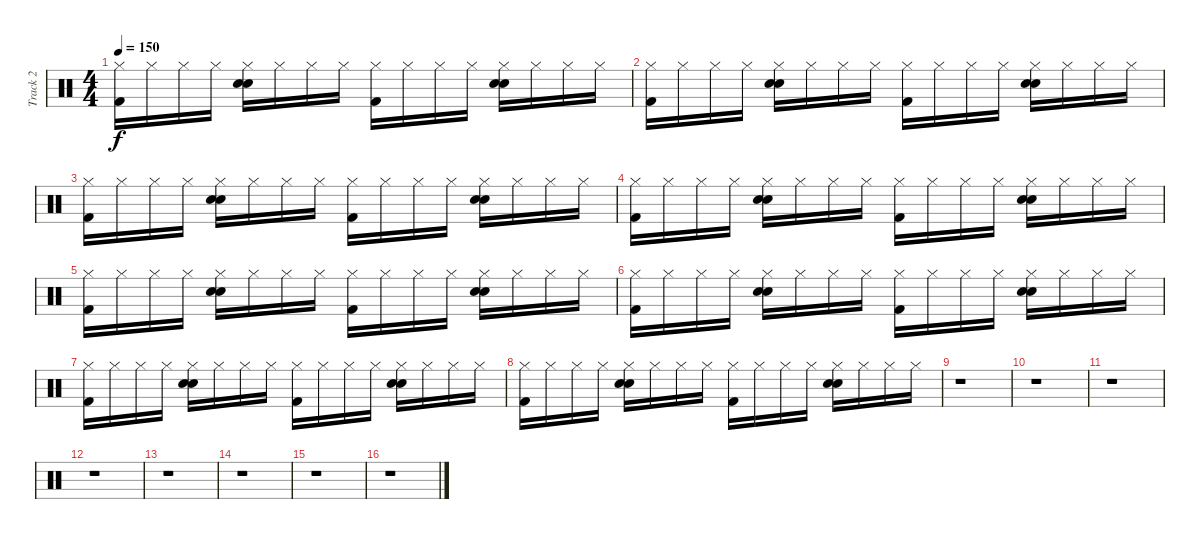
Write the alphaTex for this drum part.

\track ("Track 2" "Track 2") {instrument percussion}
\staff {score}
\articulation defaults
\ts (4 4)
\tempo 150
\clef neutral
\ks c
("Hi-Hat (closed)" "Kick (hit) 2").16{dy f} "Hi-Hat (closed)".16 "Hi-Hat (closed)".16 "Hi-Hat (closed)".16 ("Hi-Hat (closed)" "Hand Clap (hit)" "Electric Snare (hit)").16 "Hi-Hat (closed)".16 "Hi-Hat (closed)".16 "Hi-Hat (closed)".16 ("Hi-Hat (closed)" "Kick (hit) 2").16 "Hi-Hat (closed)".16 "Hi-Hat (closed)".16 "Hi-Hat (closed)".16 ("Hi-Hat (closed)" "Electric Snare (hit)" "Hand Clap (hit)").16 "Hi-Hat (closed)".16 "Hi-Hat (closed)".16 "Hi-Hat (closed)".16 |
("Hi-Hat (closed)" "Kick (hit) 2").16 "Hi-Hat (closed)".16 "Hi-Hat (closed)".16 "Hi-Hat (closed)".16 ("Hi-Hat (closed)" "Hand Clap (hit)" "Electric Snare (hit)").16 "Hi-Hat (closed)".16 "Hi-Hat (closed)".16 "Hi-Hat (closed)".16 ("Hi-Hat (closed)" "Kick (hit) 2").16 "Hi-Hat (closed)".16 "Hi-Hat (closed)".16 "Hi-Hat (closed)".16 ("Hi-Hat (closed)" "Electric Snare (hit)" "Hand Clap (hit)").16 "Hi-Hat (closed)".16 "Hi-Hat (closed)".16 "Hi-Hat (closed)".16 |
("Hi-Hat (closed)" "Kick (hit) 2").16 "Hi-Hat (closed)".16 "Hi-Hat (closed)".16 "Hi-Hat (closed)".16 ("Hi-Hat (closed)" "Hand Clap (hit)" "Electric Snare (hit)").16 "Hi-Hat (closed)".16 "Hi-Hat (closed)".16 "Hi-Hat (closed)".16 ("Hi-Hat (closed)" "Kick (hit) 2").16 "Hi-Hat (closed)".16 "Hi-Hat (closed)".16 "Hi-Hat (closed)".16 ("Hi-Hat (closed)" "Electric Snare (hit)" "Hand Clap (hit)").16 "Hi-Hat (closed)".16 "Hi-Hat (closed)".16 "Hi-Hat (closed)".16 |
("Hi-Hat (closed)" "Kick (hit) 2").16 "Hi-Hat (closed)".16 "Hi-Hat (closed)".16 "Hi-Hat (closed)".16 ("Hi-Hat (closed)" "Hand Clap (hit)" "Electric Snare (hit)").16 "Hi-Hat (closed)".16 "Hi-Hat (closed)".16 "Hi-Hat (closed)".16 ("Hi-Hat (closed)" "Kick (hit) 2").16 "Hi-Hat (closed)".16 "Hi-Hat (closed)".16 "Hi-Hat (closed)".16 ("Hi-Hat (closed)" "Electric Snare (hit)" "Hand Clap (hit)").16 "Hi-Hat (closed)".16 "Hi-Hat (closed)".16 "Hi-Hat (closed)".16 |
("Hi-Hat (closed)" "Kick (hit) 2").16 "Hi-Hat (closed)".16 "Hi-Hat (closed)".16 "Hi-Hat (closed)".16 ("Hi-Hat (closed)" "Hand Clap (hit)" "Electric Snare (hit)").16 "Hi-Hat (closed)".16 "Hi-Hat (closed)".16 "Hi-Hat (closed)".16 ("Hi-Hat (closed)" "Kick (hit) 2").16 "Hi-Hat (closed)".16 "Hi-Hat (closed)".16 "Hi-Hat (closed)".16 ("Hi-Hat (closed)" "Electric Snare (hit)" "Hand Clap (hit)").16 "Hi-Hat (closed)".16 "Hi-Hat (closed)".16 "Hi-Hat (closed)".16 |
("Hi-Hat (closed)" "Kick (hit) 2").16 "Hi-Hat (closed)".16 "Hi-Hat (closed)".16 "Hi-Hat (closed)".16 ("Hi-Hat (closed)" "Hand Clap (hit)" "Electric Snare (hit)").16 "Hi-Hat (closed)".16 "Hi-Hat (closed)".16 "Hi-Hat (closed)".16 ("Hi-Hat (closed)" "Kick (hit) 2").16 "Hi-Hat (closed)".16 "Hi-Hat (closed)".16 "Hi-Hat (closed)".16 ("Hi-Hat (closed)" "Electric Snare (hit)" "Hand Clap (hit)").16 "Hi-Hat (closed)".16 "Hi-Hat (closed)".16 "Hi-Hat (closed)".16 |
("Hi-Hat (closed)" "Kick (hit) 2").16 "Hi-Hat (closed)".16 "Hi-Hat (closed)".16 "Hi-Hat (closed)".16 ("Hi-Hat (closed)" "Hand Clap (hit)" "Electric Snare (hit)").16 "Hi-Hat (closed)".16 "Hi-Hat (closed)".16 "Hi-Hat (closed)".16 ("Hi-Hat (closed)" "Kick (hit) 2").16 "Hi-Hat (closed)".16 "Hi-Hat (closed)".16 "Hi-Hat (closed)".16 ("Hi-Hat (closed)" "Electric Snare (hit)" "Hand Clap (hit)").16 "Hi-Hat (closed)".16 "Hi-Hat (closed)".16 "Hi-Hat (closed)".16 |
("Hi-Hat (closed)" "Kick (hit) 2").16 "Hi-Hat (closed)".16 "Hi-Hat (closed)".16 "Hi-Hat (closed)".16 ("Hi-Hat (closed)" "Hand Clap (hit)" "Electric Snare (hit)").16 "Hi-Hat (closed)".16 "Hi-Hat (closed)".16 "Hi-Hat (closed)".16 ("Hi-Hat (closed)" "Kick (hit) 2").16 "Hi-Hat (closed)".16 "Hi-Hat (closed)".16 "Hi-Hat (closed)".16 ("Hi-Hat (closed)" "Electric Snare (hit)" "Hand Clap (hit)").16 "Hi-Hat (closed)".16 "Hi-Hat (closed)".16 "Hi-Hat (closed)".16 |
r.1 |
r.1 |
r.1 |
r.1 |
r.1 |
r.1 |
r.1 |
r.1
